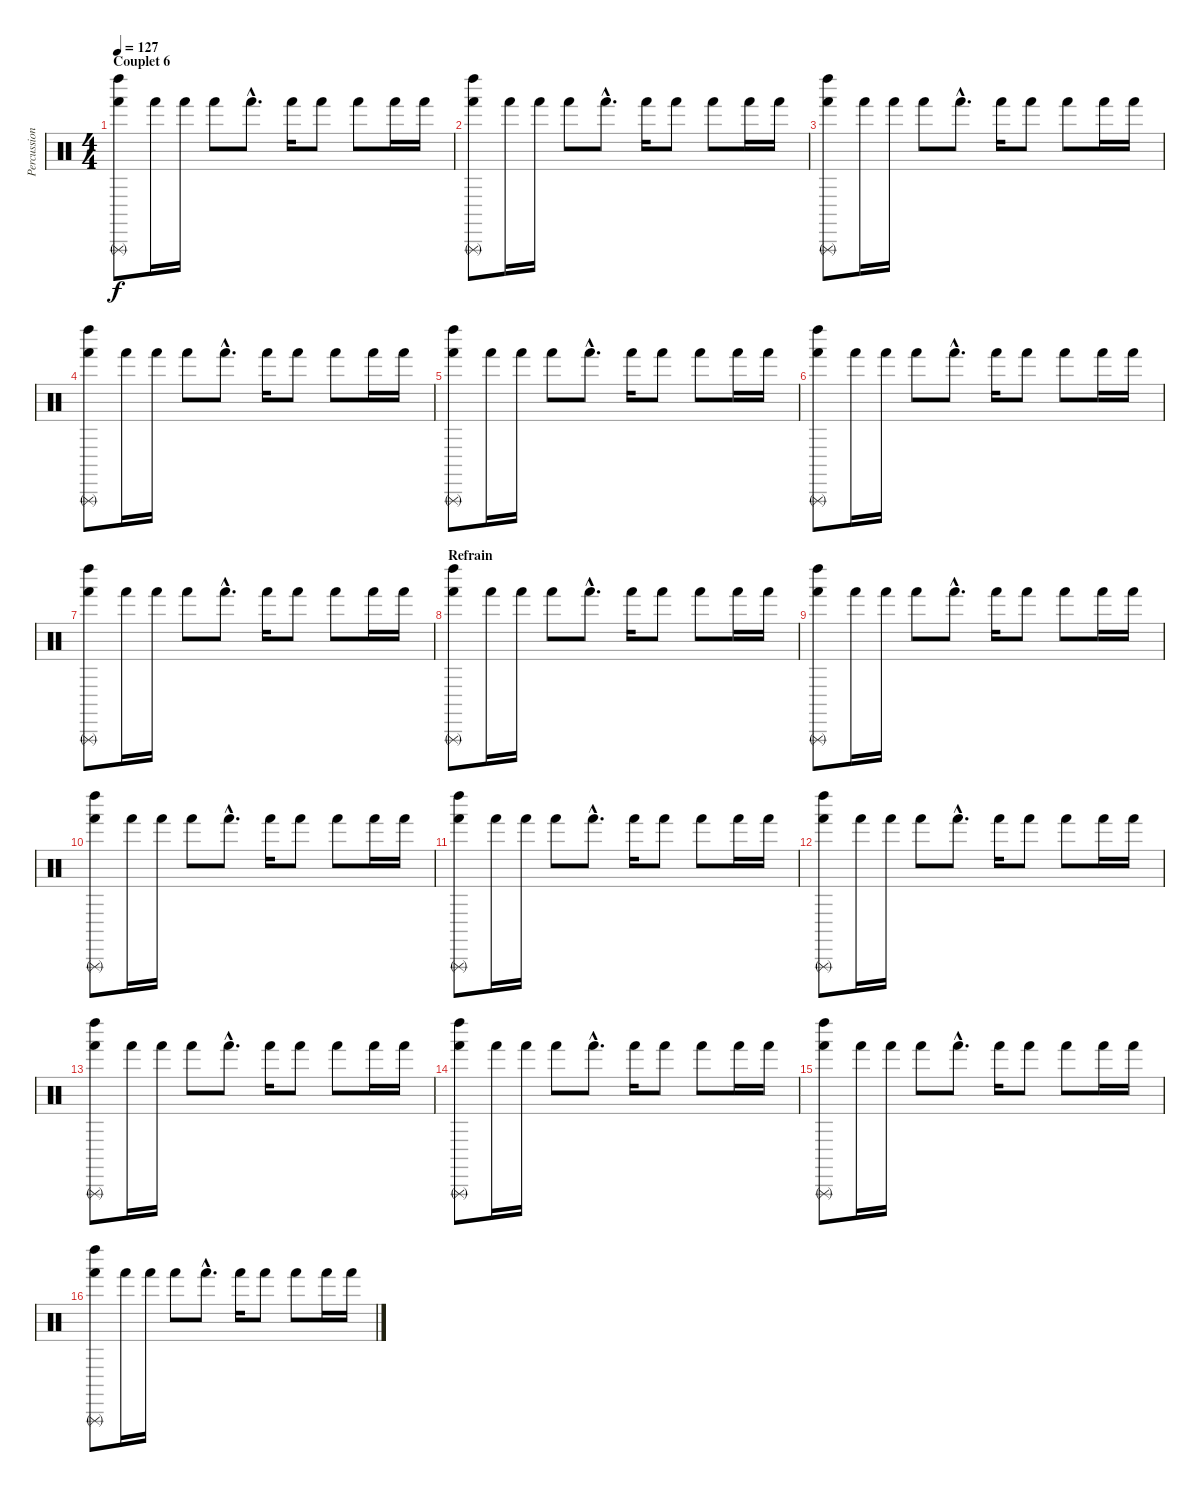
\track ("Percussions" "Percussion") {instrument percussion}
\staff {score}
\articulation defaults
\ts (4 4)
\section ("" "Couplet 6")
\tempo 127
\clef neutral
\ks c
("Hand (hit)" "Triangle (rnute)" "Left Maraca (hit)").8{dy f} "Hand (hit)".16 "Hand (hit)".16 "Hand (hit)".8 "Hand (hit)"{hac}.8{d} "Hand (hit)".16 "Hand (hit)".8 "Hand (hit)".8 "Hand (hit)".16 "Hand (hit)".16 |
("Hand (hit)" "Triangle (rnute)" "Left Maraca (hit)").8 "Hand (hit)".16 "Hand (hit)".16 "Hand (hit)".8 "Hand (hit)"{hac}.8{d} "Hand (hit)".16 "Hand (hit)".8 "Hand (hit)".8 "Hand (hit)".16 "Hand (hit)".16 |
("Hand (hit)" "Triangle (rnute)" "Left Maraca (hit)").8 "Hand (hit)".16 "Hand (hit)".16 "Hand (hit)".8 "Hand (hit)"{hac}.8{d} "Hand (hit)".16 "Hand (hit)".8 "Hand (hit)".8 "Hand (hit)".16 "Hand (hit)".16 |
("Hand (hit)" "Triangle (rnute)" "Left Maraca (hit)").8 "Hand (hit)".16 "Hand (hit)".16 "Hand (hit)".8 "Hand (hit)"{hac}.8{d} "Hand (hit)".16 "Hand (hit)".8 "Hand (hit)".8 "Hand (hit)".16 "Hand (hit)".16 |
("Hand (hit)" "Triangle (rnute)" "Left Maraca (hit)").8 "Hand (hit)".16 "Hand (hit)".16 "Hand (hit)".8 "Hand (hit)"{hac}.8{d} "Hand (hit)".16 "Hand (hit)".8 "Hand (hit)".8 "Hand (hit)".16 "Hand (hit)".16 |
("Hand (hit)" "Triangle (rnute)" "Left Maraca (hit)").8 "Hand (hit)".16 "Hand (hit)".16 "Hand (hit)".8 "Hand (hit)"{hac}.8{d} "Hand (hit)".16 "Hand (hit)".8 "Hand (hit)".8 "Hand (hit)".16 "Hand (hit)".16 |
("Hand (hit)" "Triangle (rnute)" "Left Maraca (hit)").8 "Hand (hit)".16 "Hand (hit)".16 "Hand (hit)".8 "Hand (hit)"{hac}.8{d} "Hand (hit)".16 "Hand (hit)".8 "Hand (hit)".8 "Hand (hit)".16 "Hand (hit)".16 |
\section ("" "Refrain")
("Hand (hit)" "Triangle (rnute)" "Left Maraca (hit)").8 "Hand (hit)".16 "Hand (hit)".16 "Hand (hit)".8 "Hand (hit)"{hac}.8{d} "Hand (hit)".16 "Hand (hit)".8 "Hand (hit)".8 "Hand (hit)".16 "Hand (hit)".16 |
("Hand (hit)" "Triangle (rnute)" "Left Maraca (hit)").8 "Hand (hit)".16 "Hand (hit)".16 "Hand (hit)".8 "Hand (hit)"{hac}.8{d} "Hand (hit)".16 "Hand (hit)".8 "Hand (hit)".8 "Hand (hit)".16 "Hand (hit)".16 |
("Hand (hit)" "Triangle (rnute)" "Left Maraca (hit)").8 "Hand (hit)".16 "Hand (hit)".16 "Hand (hit)".8 "Hand (hit)"{hac}.8{d} "Hand (hit)".16 "Hand (hit)".8 "Hand (hit)".8 "Hand (hit)".16 "Hand (hit)".16 |
("Hand (hit)" "Triangle (rnute)" "Left Maraca (hit)").8 "Hand (hit)".16 "Hand (hit)".16 "Hand (hit)".8 "Hand (hit)"{hac}.8{d} "Hand (hit)".16 "Hand (hit)".8 "Hand (hit)".8 "Hand (hit)".16 "Hand (hit)".16 |
("Hand (hit)" "Triangle (rnute)" "Left Maraca (hit)").8 "Hand (hit)".16 "Hand (hit)".16 "Hand (hit)".8 "Hand (hit)"{hac}.8{d} "Hand (hit)".16 "Hand (hit)".8 "Hand (hit)".8 "Hand (hit)".16 "Hand (hit)".16 |
("Hand (hit)" "Triangle (rnute)" "Left Maraca (hit)").8 "Hand (hit)".16 "Hand (hit)".16 "Hand (hit)".8 "Hand (hit)"{hac}.8{d} "Hand (hit)".16 "Hand (hit)".8 "Hand (hit)".8 "Hand (hit)".16 "Hand (hit)".16 |
("Hand (hit)" "Triangle (rnute)" "Left Maraca (hit)").8 "Hand (hit)".16 "Hand (hit)".16 "Hand (hit)".8 "Hand (hit)"{hac}.8{d} "Hand (hit)".16 "Hand (hit)".8 "Hand (hit)".8 "Hand (hit)".16 "Hand (hit)".16 |
("Hand (hit)" "Triangle (rnute)" "Left Maraca (hit)").8 "Hand (hit)".16 "Hand (hit)".16 "Hand (hit)".8 "Hand (hit)"{hac}.8{d} "Hand (hit)".16 "Hand (hit)".8 "Hand (hit)".8 "Hand (hit)".16 "Hand (hit)".16 |
("Hand (hit)" "Triangle (rnute)" "Left Maraca (hit)").8 "Hand (hit)".16 "Hand (hit)".16 "Hand (hit)".8 "Hand (hit)"{hac}.8{d} "Hand (hit)".16 "Hand (hit)".8 "Hand (hit)".8 "Hand (hit)".16 "Hand (hit)".16
